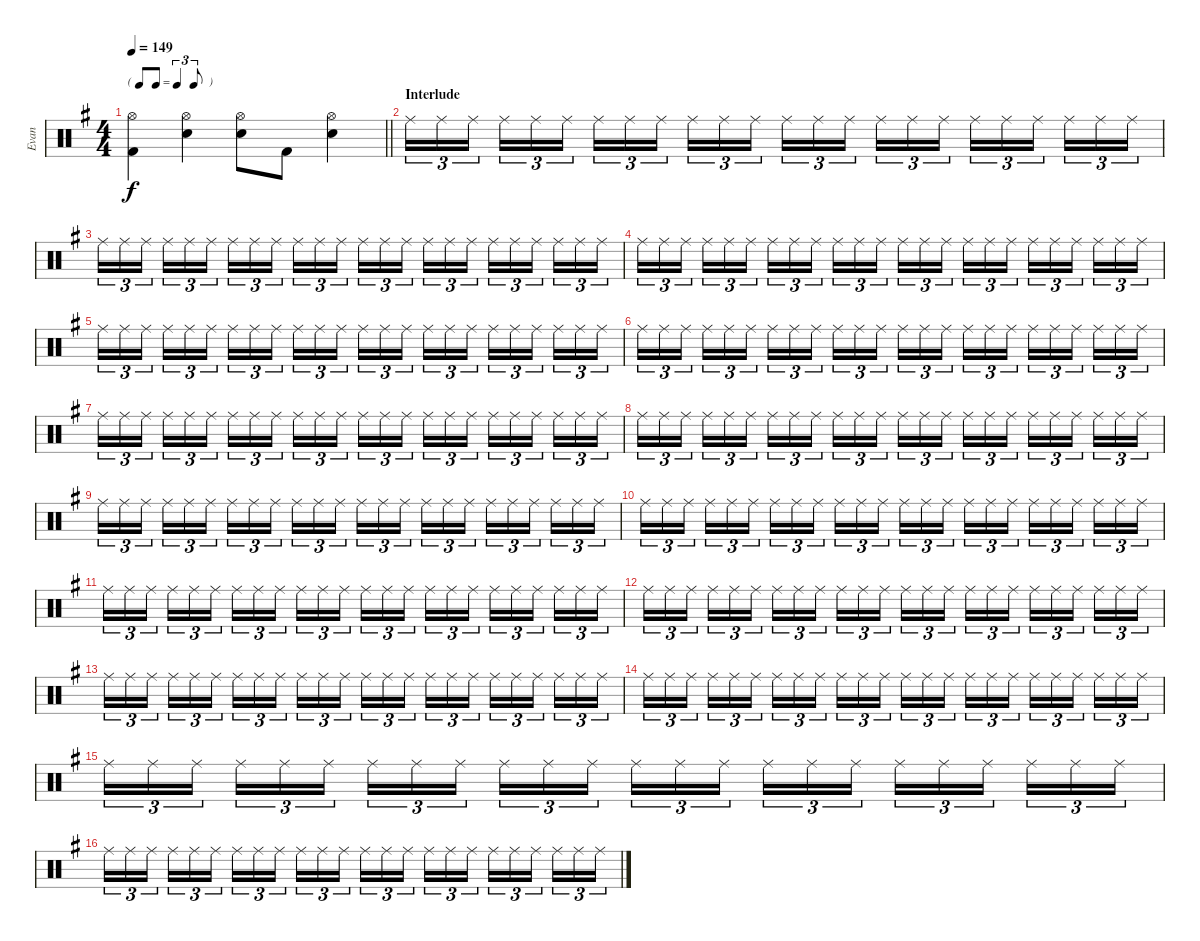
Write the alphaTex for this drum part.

\track ("Evan" "Evan") {instrument percussion}
\staff {score}
\articulation defaults
\ts (4 4)
\tf triplet8th
\tempo 149
\clef neutral
\barLineRight lightlight
\ks g
("Hi-Hat (open)" "Kick (hit) 2").4{dy f} ("Hi-Hat (open)" "Electric Snare (hit)").4 ("Hi-Hat (open)" "Electric Snare (hit)").8 "Kick (hit) 2".8 ("Hi-Hat (open)" "Electric Snare (hit)").4 |
\section ("" "Interlude")
"Ride (middle)".16{tu (3 2)} "Ride (middle)".16{tu (3 2)} "Ride (middle)".16{tu (3 2) beam splitsecondary} "Ride (middle)".16{tu (3 2)} "Ride (middle)".16{tu (3 2)} "Ride (middle)".16{tu (3 2)} "Ride (middle)".16{tu (3 2)} "Ride (middle)".16{tu (3 2)} "Ride (middle)".16{tu (3 2) beam splitsecondary} "Ride (middle)".16{tu (3 2)} "Ride (middle)".16{tu (3 2)} "Ride (middle)".16{tu (3 2)} "Ride (middle)".16{tu (3 2)} "Ride (middle)".16{tu (3 2)} "Ride (middle)".16{tu (3 2) beam splitsecondary} "Ride (middle)".16{tu (3 2)} "Ride (middle)".16{tu (3 2)} "Ride (middle)".16{tu (3 2)} "Ride (middle)".16{tu (3 2)} "Ride (middle)".16{tu (3 2)} "Ride (middle)".16{tu (3 2) beam splitsecondary} "Ride (middle)".16{tu (3 2)} "Ride (middle)".16{tu (3 2)} "Ride (middle)".16{tu (3 2)} |
"Ride (middle)".16{tu (3 2)} "Ride (middle)".16{tu (3 2)} "Ride (middle)".16{tu (3 2) beam splitsecondary} "Ride (middle)".16{tu (3 2)} "Ride (middle)".16{tu (3 2)} "Ride (middle)".16{tu (3 2)} "Ride (middle)".16{tu (3 2)} "Ride (middle)".16{tu (3 2)} "Ride (middle)".16{tu (3 2) beam splitsecondary} "Ride (middle)".16{tu (3 2)} "Ride (middle)".16{tu (3 2)} "Ride (middle)".16{tu (3 2)} "Ride (middle)".16{tu (3 2)} "Ride (middle)".16{tu (3 2)} "Ride (middle)".16{tu (3 2) beam splitsecondary} "Ride (middle)".16{tu (3 2)} "Ride (middle)".16{tu (3 2)} "Ride (middle)".16{tu (3 2)} "Ride (middle)".16{tu (3 2)} "Ride (middle)".16{tu (3 2)} "Ride (middle)".16{tu (3 2) beam splitsecondary} "Ride (middle)".16{tu (3 2)} "Ride (middle)".16{tu (3 2)} "Ride (middle)".16{tu (3 2)} |
"Ride (middle)".16{tu (3 2)} "Ride (middle)".16{tu (3 2)} "Ride (middle)".16{tu (3 2) beam splitsecondary} "Ride (middle)".16{tu (3 2)} "Ride (middle)".16{tu (3 2)} "Ride (middle)".16{tu (3 2)} "Ride (middle)".16{tu (3 2)} "Ride (middle)".16{tu (3 2)} "Ride (middle)".16{tu (3 2) beam splitsecondary} "Ride (middle)".16{tu (3 2)} "Ride (middle)".16{tu (3 2)} "Ride (middle)".16{tu (3 2)} "Ride (middle)".16{tu (3 2)} "Ride (middle)".16{tu (3 2)} "Ride (middle)".16{tu (3 2) beam splitsecondary} "Ride (middle)".16{tu (3 2)} "Ride (middle)".16{tu (3 2)} "Ride (middle)".16{tu (3 2)} "Ride (middle)".16{tu (3 2)} "Ride (middle)".16{tu (3 2)} "Ride (middle)".16{tu (3 2) beam splitsecondary} "Ride (middle)".16{tu (3 2)} "Ride (middle)".16{tu (3 2)} "Ride (middle)".16{tu (3 2)} |
"Ride (middle)".16{tu (3 2)} "Ride (middle)".16{tu (3 2)} "Ride (middle)".16{tu (3 2) beam splitsecondary} "Ride (middle)".16{tu (3 2)} "Ride (middle)".16{tu (3 2)} "Ride (middle)".16{tu (3 2)} "Ride (middle)".16{tu (3 2)} "Ride (middle)".16{tu (3 2)} "Ride (middle)".16{tu (3 2) beam splitsecondary} "Ride (middle)".16{tu (3 2)} "Ride (middle)".16{tu (3 2)} "Ride (middle)".16{tu (3 2)} "Ride (middle)".16{tu (3 2)} "Ride (middle)".16{tu (3 2)} "Ride (middle)".16{tu (3 2) beam splitsecondary} "Ride (middle)".16{tu (3 2)} "Ride (middle)".16{tu (3 2)} "Ride (middle)".16{tu (3 2)} "Ride (middle)".16{tu (3 2)} "Ride (middle)".16{tu (3 2)} "Ride (middle)".16{tu (3 2) beam splitsecondary} "Ride (middle)".16{tu (3 2)} "Ride (middle)".16{tu (3 2)} "Ride (middle)".16{tu (3 2)} |
"Ride (middle)".16{tu (3 2)} "Ride (middle)".16{tu (3 2)} "Ride (middle)".16{tu (3 2) beam splitsecondary} "Ride (middle)".16{tu (3 2)} "Ride (middle)".16{tu (3 2)} "Ride (middle)".16{tu (3 2)} "Ride (middle)".16{tu (3 2)} "Ride (middle)".16{tu (3 2)} "Ride (middle)".16{tu (3 2) beam splitsecondary} "Ride (middle)".16{tu (3 2)} "Ride (middle)".16{tu (3 2)} "Ride (middle)".16{tu (3 2)} "Ride (middle)".16{tu (3 2)} "Ride (middle)".16{tu (3 2)} "Ride (middle)".16{tu (3 2) beam splitsecondary} "Ride (middle)".16{tu (3 2)} "Ride (middle)".16{tu (3 2)} "Ride (middle)".16{tu (3 2)} "Ride (middle)".16{tu (3 2)} "Ride (middle)".16{tu (3 2)} "Ride (middle)".16{tu (3 2) beam splitsecondary} "Ride (middle)".16{tu (3 2)} "Ride (middle)".16{tu (3 2)} "Ride (middle)".16{tu (3 2)} |
"Ride (middle)".16{tu (3 2)} "Ride (middle)".16{tu (3 2)} "Ride (middle)".16{tu (3 2) beam splitsecondary} "Ride (middle)".16{tu (3 2)} "Ride (middle)".16{tu (3 2)} "Ride (middle)".16{tu (3 2)} "Ride (middle)".16{tu (3 2)} "Ride (middle)".16{tu (3 2)} "Ride (middle)".16{tu (3 2) beam splitsecondary} "Ride (middle)".16{tu (3 2)} "Ride (middle)".16{tu (3 2)} "Ride (middle)".16{tu (3 2)} "Ride (middle)".16{tu (3 2)} "Ride (middle)".16{tu (3 2)} "Ride (middle)".16{tu (3 2) beam splitsecondary} "Ride (middle)".16{tu (3 2)} "Ride (middle)".16{tu (3 2)} "Ride (middle)".16{tu (3 2)} "Ride (middle)".16{tu (3 2)} "Ride (middle)".16{tu (3 2)} "Ride (middle)".16{tu (3 2) beam splitsecondary} "Ride (middle)".16{tu (3 2)} "Ride (middle)".16{tu (3 2)} "Ride (middle)".16{tu (3 2)} |
"Ride (middle)".16{tu (3 2)} "Ride (middle)".16{tu (3 2)} "Ride (middle)".16{tu (3 2) beam splitsecondary} "Ride (middle)".16{tu (3 2)} "Ride (middle)".16{tu (3 2)} "Ride (middle)".16{tu (3 2)} "Ride (middle)".16{tu (3 2)} "Ride (middle)".16{tu (3 2)} "Ride (middle)".16{tu (3 2) beam splitsecondary} "Ride (middle)".16{tu (3 2)} "Ride (middle)".16{tu (3 2)} "Ride (middle)".16{tu (3 2)} "Ride (middle)".16{tu (3 2)} "Ride (middle)".16{tu (3 2)} "Ride (middle)".16{tu (3 2) beam splitsecondary} "Ride (middle)".16{tu (3 2)} "Ride (middle)".16{tu (3 2)} "Ride (middle)".16{tu (3 2)} "Ride (middle)".16{tu (3 2)} "Ride (middle)".16{tu (3 2)} "Ride (middle)".16{tu (3 2) beam splitsecondary} "Ride (middle)".16{tu (3 2)} "Ride (middle)".16{tu (3 2)} "Ride (middle)".16{tu (3 2)} |
"Ride (middle)".16{tu (3 2)} "Ride (middle)".16{tu (3 2)} "Ride (middle)".16{tu (3 2) beam splitsecondary} "Ride (middle)".16{tu (3 2)} "Ride (middle)".16{tu (3 2)} "Ride (middle)".16{tu (3 2)} "Ride (middle)".16{tu (3 2)} "Ride (middle)".16{tu (3 2)} "Ride (middle)".16{tu (3 2) beam splitsecondary} "Ride (middle)".16{tu (3 2)} "Ride (middle)".16{tu (3 2)} "Ride (middle)".16{tu (3 2)} "Ride (middle)".16{tu (3 2)} "Ride (middle)".16{tu (3 2)} "Ride (middle)".16{tu (3 2) beam splitsecondary} "Ride (middle)".16{tu (3 2)} "Ride (middle)".16{tu (3 2)} "Ride (middle)".16{tu (3 2)} "Ride (middle)".16{tu (3 2)} "Ride (middle)".16{tu (3 2)} "Ride (middle)".16{tu (3 2) beam splitsecondary} "Ride (middle)".16{tu (3 2)} "Ride (middle)".16{tu (3 2)} "Ride (middle)".16{tu (3 2)} |
"Ride (middle)".16{tu (3 2)} "Ride (middle)".16{tu (3 2)} "Ride (middle)".16{tu (3 2) beam splitsecondary} "Ride (middle)".16{tu (3 2)} "Ride (middle)".16{tu (3 2)} "Ride (middle)".16{tu (3 2)} "Ride (middle)".16{tu (3 2)} "Ride (middle)".16{tu (3 2)} "Ride (middle)".16{tu (3 2) beam splitsecondary} "Ride (middle)".16{tu (3 2)} "Ride (middle)".16{tu (3 2)} "Ride (middle)".16{tu (3 2)} "Ride (middle)".16{tu (3 2)} "Ride (middle)".16{tu (3 2)} "Ride (middle)".16{tu (3 2) beam splitsecondary} "Ride (middle)".16{tu (3 2)} "Ride (middle)".16{tu (3 2)} "Ride (middle)".16{tu (3 2)} "Ride (middle)".16{tu (3 2)} "Ride (middle)".16{tu (3 2)} "Ride (middle)".16{tu (3 2) beam splitsecondary} "Ride (middle)".16{tu (3 2)} "Ride (middle)".16{tu (3 2)} "Ride (middle)".16{tu (3 2)} |
"Ride (middle)".16{tu (3 2)} "Ride (middle)".16{tu (3 2)} "Ride (middle)".16{tu (3 2) beam splitsecondary} "Ride (middle)".16{tu (3 2)} "Ride (middle)".16{tu (3 2)} "Ride (middle)".16{tu (3 2)} "Ride (middle)".16{tu (3 2)} "Ride (middle)".16{tu (3 2)} "Ride (middle)".16{tu (3 2) beam splitsecondary} "Ride (middle)".16{tu (3 2)} "Ride (middle)".16{tu (3 2)} "Ride (middle)".16{tu (3 2)} "Ride (middle)".16{tu (3 2)} "Ride (middle)".16{tu (3 2)} "Ride (middle)".16{tu (3 2) beam splitsecondary} "Ride (middle)".16{tu (3 2)} "Ride (middle)".16{tu (3 2)} "Ride (middle)".16{tu (3 2)} "Ride (middle)".16{tu (3 2)} "Ride (middle)".16{tu (3 2)} "Ride (middle)".16{tu (3 2) beam splitsecondary} "Ride (middle)".16{tu (3 2)} "Ride (middle)".16{tu (3 2)} "Ride (middle)".16{tu (3 2)} |
"Ride (middle)".16{tu (3 2)} "Ride (middle)".16{tu (3 2)} "Ride (middle)".16{tu (3 2) beam splitsecondary} "Ride (middle)".16{tu (3 2)} "Ride (middle)".16{tu (3 2)} "Ride (middle)".16{tu (3 2)} "Ride (middle)".16{tu (3 2)} "Ride (middle)".16{tu (3 2)} "Ride (middle)".16{tu (3 2) beam splitsecondary} "Ride (middle)".16{tu (3 2)} "Ride (middle)".16{tu (3 2)} "Ride (middle)".16{tu (3 2)} "Ride (middle)".16{tu (3 2)} "Ride (middle)".16{tu (3 2)} "Ride (middle)".16{tu (3 2) beam splitsecondary} "Ride (middle)".16{tu (3 2)} "Ride (middle)".16{tu (3 2)} "Ride (middle)".16{tu (3 2)} "Ride (middle)".16{tu (3 2)} "Ride (middle)".16{tu (3 2)} "Ride (middle)".16{tu (3 2) beam splitsecondary} "Ride (middle)".16{tu (3 2)} "Ride (middle)".16{tu (3 2)} "Ride (middle)".16{tu (3 2)} |
"Ride (middle)".16{tu (3 2)} "Ride (middle)".16{tu (3 2)} "Ride (middle)".16{tu (3 2) beam splitsecondary} "Ride (middle)".16{tu (3 2)} "Ride (middle)".16{tu (3 2)} "Ride (middle)".16{tu (3 2)} "Ride (middle)".16{tu (3 2)} "Ride (middle)".16{tu (3 2)} "Ride (middle)".16{tu (3 2) beam splitsecondary} "Ride (middle)".16{tu (3 2)} "Ride (middle)".16{tu (3 2)} "Ride (middle)".16{tu (3 2)} "Ride (middle)".16{tu (3 2)} "Ride (middle)".16{tu (3 2)} "Ride (middle)".16{tu (3 2) beam splitsecondary} "Ride (middle)".16{tu (3 2)} "Ride (middle)".16{tu (3 2)} "Ride (middle)".16{tu (3 2)} "Ride (middle)".16{tu (3 2)} "Ride (middle)".16{tu (3 2)} "Ride (middle)".16{tu (3 2) beam splitsecondary} "Ride (middle)".16{tu (3 2)} "Ride (middle)".16{tu (3 2)} "Ride (middle)".16{tu (3 2)} |
"Ride (middle)".16{tu (3 2)} "Ride (middle)".16{tu (3 2)} "Ride (middle)".16{tu (3 2) beam splitsecondary} "Ride (middle)".16{tu (3 2)} "Ride (middle)".16{tu (3 2)} "Ride (middle)".16{tu (3 2)} "Ride (middle)".16{tu (3 2)} "Ride (middle)".16{tu (3 2)} "Ride (middle)".16{tu (3 2) beam splitsecondary} "Ride (middle)".16{tu (3 2)} "Ride (middle)".16{tu (3 2)} "Ride (middle)".16{tu (3 2)} "Ride (middle)".16{tu (3 2)} "Ride (middle)".16{tu (3 2)} "Ride (middle)".16{tu (3 2) beam splitsecondary} "Ride (middle)".16{tu (3 2)} "Ride (middle)".16{tu (3 2)} "Ride (middle)".16{tu (3 2)} "Ride (middle)".16{tu (3 2)} "Ride (middle)".16{tu (3 2)} "Ride (middle)".16{tu (3 2) beam splitsecondary} "Ride (middle)".16{tu (3 2)} "Ride (middle)".16{tu (3 2)} "Ride (middle)".16{tu (3 2)} |
"Ride (middle)".16{tu (3 2)} "Ride (middle)".16{tu (3 2)} "Ride (middle)".16{tu (3 2) beam splitsecondary} "Ride (middle)".16{tu (3 2)} "Ride (middle)".16{tu (3 2)} "Ride (middle)".16{tu (3 2)} "Ride (middle)".16{tu (3 2)} "Ride (middle)".16{tu (3 2)} "Ride (middle)".16{tu (3 2) beam splitsecondary} "Ride (middle)".16{tu (3 2)} "Ride (middle)".16{tu (3 2)} "Ride (middle)".16{tu (3 2)} "Ride (middle)".16{tu (3 2)} "Ride (middle)".16{tu (3 2)} "Ride (middle)".16{tu (3 2) beam splitsecondary} "Ride (middle)".16{tu (3 2)} "Ride (middle)".16{tu (3 2)} "Ride (middle)".16{tu (3 2)} "Ride (middle)".16{tu (3 2)} "Ride (middle)".16{tu (3 2)} "Ride (middle)".16{tu (3 2) beam splitsecondary} "Ride (middle)".16{tu (3 2)} "Ride (middle)".16{tu (3 2)} "Ride (middle)".16{tu (3 2)} |
"Ride (middle)".16{tu (3 2)} "Ride (middle)".16{tu (3 2)} "Ride (middle)".16{tu (3 2) beam splitsecondary} "Ride (middle)".16{tu (3 2)} "Ride (middle)".16{tu (3 2)} "Ride (middle)".16{tu (3 2)} "Ride (middle)".16{tu (3 2)} "Ride (middle)".16{tu (3 2)} "Ride (middle)".16{tu (3 2) beam splitsecondary} "Ride (middle)".16{tu (3 2)} "Ride (middle)".16{tu (3 2)} "Ride (middle)".16{tu (3 2)} "Ride (middle)".16{tu (3 2)} "Ride (middle)".16{tu (3 2)} "Ride (middle)".16{tu (3 2) beam splitsecondary} "Ride (middle)".16{tu (3 2)} "Ride (middle)".16{tu (3 2)} "Ride (middle)".16{tu (3 2)} "Ride (middle)".16{tu (3 2)} "Ride (middle)".16{tu (3 2)} "Ride (middle)".16{tu (3 2) beam splitsecondary} "Ride (middle)".16{tu (3 2)} "Ride (middle)".16{tu (3 2)} "Ride (middle)".16{tu (3 2)}
